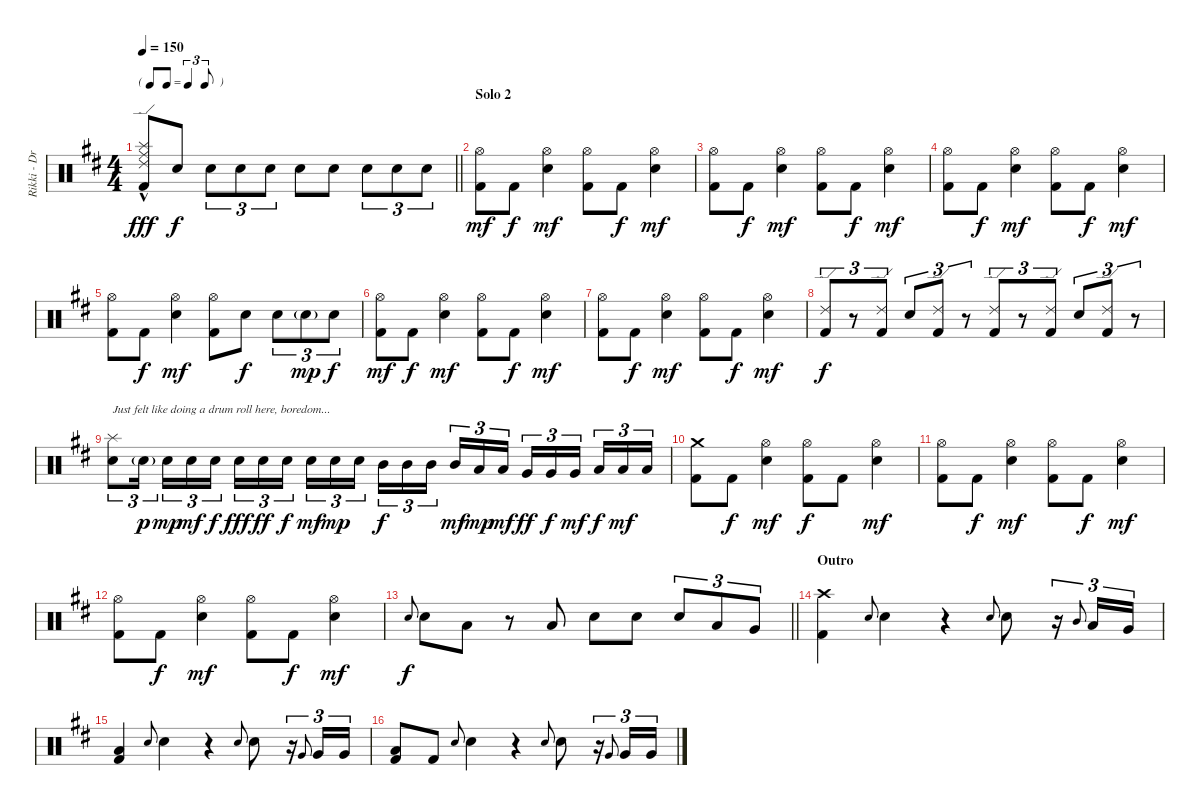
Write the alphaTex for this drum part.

\track ("Rikki - Drums" "Rikki - Dr") {instrument percussion}
\staff {score}
\articulation defaults
\ts (4 4)
\tf triplet8th
\tempo 150
\clef neutral
\barLineRight lightlight
\ks d
("Ride (edge) 2"{hac} "Ride (middle)"{hac} "Splash (hit)" "Kick (hit) 2").8{dy fff} "Snare (hit) 2".8{dy f} "Snare (hit) 2".8{tu (3 2)} "Snare (hit) 2".8{tu (3 2)} "Snare (hit) 2".8{tu (3 2)} "Snare (hit) 2".8 "Snare (hit) 2".8 "Snare (hit) 2".8{tu (3 2)} "Snare (hit) 2".8{tu (3 2)} "Snare (hit) 2".8{tu (3 2)} |
\section ("" "Solo 2")
("Hi-Hat (open)" "Kick (hit) 2").8{dy mf} "Kick (hit) 2".8{dy f} ("Hi-Hat (open)" "Snare (hit) 2").4{dy mf} ("Hi-Hat (open)" "Kick (hit) 2").8 "Kick (hit) 2".8{dy f} ("Hi-Hat (open)" "Snare (hit) 2").4{dy mf} |
("Hi-Hat (open)" "Kick (hit) 2").8 "Kick (hit) 2".8{dy f} ("Hi-Hat (open)" "Snare (hit) 2").4{dy mf} ("Hi-Hat (open)" "Kick (hit) 2").8 "Kick (hit) 2".8{dy f} ("Hi-Hat (open)" "Snare (hit) 2").4{dy mf} |
("Hi-Hat (open)" "Kick (hit) 2").8 "Kick (hit) 2".8{dy f} ("Hi-Hat (open)" "Snare (hit) 2").4{dy mf} ("Hi-Hat (open)" "Kick (hit) 2").8 "Kick (hit) 2".8{dy f} ("Hi-Hat (open)" "Snare (hit) 2").4{dy mf} |
("Hi-Hat (open)" "Kick (hit) 2").8 "Kick (hit) 2".8{dy f} ("Hi-Hat (open)" "Snare (hit) 2").4{dy mf} ("Hi-Hat (open)" "Kick (hit) 2").8 "Snare (hit) 2".8{dy f} "Snare (hit) 2".8{tu (3 2)} "Snare (hit) 2"{g}.8{tu (3 2) dy mp} "Snare (hit) 2".8{tu (3 2) dy f} |
("Hi-Hat (open)" "Kick (hit) 2").8{dy mf} "Kick (hit) 2".8{dy f} ("Hi-Hat (open)" "Snare (hit) 2").4{dy mf} ("Hi-Hat (open)" "Kick (hit) 2").8 "Kick (hit) 2".8{dy f} ("Hi-Hat (open)" "Snare (hit) 2").4{dy mf} |
("Hi-Hat (open)" "Kick (hit) 2").8 "Kick (hit) 2".8{dy f} ("Hi-Hat (open)" "Snare (hit) 2").4{dy mf} ("Hi-Hat (open)" "Kick (hit) 2").8 "Kick (hit) 2".8{dy f} ("Hi-Hat (open)" "Snare (hit) 2").4{dy mf} |
("Ride (edge) 2" "Kick (hit) 2").8{tu (3 2) dy f} r.8{tu (3 2)} ("Ride (edge) 2" "Kick (hit) 2").8{tu (3 2)} "Snare (hit) 2".8{tu (3 2)} ("Ride (edge) 2" "Kick (hit) 2").8{tu (3 2)} r.8{tu (3 2)} ("Ride (edge) 2" "Kick (hit) 2").8{tu (3 2)} r.8{tu (3 2)} ("Ride (edge) 2" "Kick (hit) 2").8{tu (3 2)} "Snare (hit) 2".8{tu (3 2)} ("Ride (edge) 2" "Kick (hit) 2").8{tu (3 2)} r.8{tu (3 2)} |
("Splash (hit)" "Electric Snare (hit)").8{tu (3 2) txt "Just felt like doing a drum roll here, boredom..."} "Electric Snare (hit)"{g}.16{tu (3 2) dy p beam splitsecondary} "Electric Snare (hit)".16{tu (3 2) dy mp} "Electric Snare (hit)".16{tu (3 2) dy mf} "Electric Snare (hit)".16{tu (3 2) dy f} "Electric Snare (hit)".16{tu (3 2) dy fff} "Electric Snare (hit)".16{tu (3 2) dy ff} "Electric Snare (hit)".16{tu (3 2) dy f beam splitsecondary} "Electric Snare (hit)".16{tu (3 2) dy mf} "Electric Snare (hit)".16{tu (3 2) dy mp} "Electric Snare (hit)".16{tu (3 2)} "Mid Tom (hit)".16{tu (3 2) dy f} "Mid Tom (hit)".16{tu (3 2)} "Mid Tom (hit)".16{tu (3 2) beam splitsecondary} "Mid Tom (hit)".16{tu (3 2) dy mf} "Low Tom (hit)".16{tu (3 2) dy mp} "Low Tom (hit)".16{tu (3 2) dy mf} "Very Low Tom (hit)".16{tu (3 2) dy ff} "Very Low Tom (hit)".16{tu (3 2) dy f} "Very Low Tom (hit)".16{tu (3 2) dy mf beam splitsecondary} "Low Floor Tom (hit)".16{tu (3 2) dy f} "Low Floor Tom (hit)".16{tu (3 2) dy mf} "Low Floor Tom (hit)".16{tu (3 2)} |
("Crash medium (hit)" "Kick (hit) 2").8 "Kick (hit) 2".8{dy f} ("Hi-Hat (open)" "Snare (hit) 2").4{dy mf} ("Hi-Hat (open)" "Kick (hit) 2").8{dy f} "Kick (hit) 2".8 ("Hi-Hat (open)" "Snare (hit) 2").4{dy mf} |
("Hi-Hat (open)" "Kick (hit) 2").8 "Kick (hit) 2".8{dy f} ("Hi-Hat (open)" "Snare (hit) 2").4{dy mf} ("Hi-Hat (open)" "Kick (hit) 2").8 "Kick (hit) 2".8{dy f} ("Hi-Hat (open)" "Snare (hit) 2").4{dy mf} |
("Hi-Hat (open)" "Kick (hit) 2").8 "Kick (hit) 2".8{dy f} ("Hi-Hat (open)" "Snare (hit) 2").4{dy mf} ("Hi-Hat (open)" "Kick (hit) 2").8 "Kick (hit) 2".8{dy f} ("Hi-Hat (open)" "Snare (hit) 2").4{dy mf} |
\barLineRight lightlight "Snare (hit) 2".8{gr onbeat dy f} "Snare (hit) 2".8 "Low Tom (hit)".8
r.8 "Low Tom (hit)".8 "Snare (hit) 2".8 "Snare (hit) 2".8 "Snare (hit) 2".8{tu (3 2)} "Low Tom (hit)".8{tu (3 2)} "Very Low Tom (hit)".8{tu (3 2)} |
\section ("" "Outro")
("Crash high (hit)" "Kick (hit) 2").4 "Snare (hit) 2".8{gr onbeat} "Snare (hit) 2".4 r.4 "Snare (hit) 2".8{gr onbeat} "Snare (hit) 2".8 r.16{tu (3 2)} "Mid Tom (hit)".8{gr onbeat} "Low Tom (hit)".16{tu (3 2)} "Very Low Tom (hit)".16{tu (3 2)} |
("Low Floor Tom (hit)" "Kick (hit) 2").4 "Snare (hit) 2".8{gr onbeat} "Snare (hit) 2".4 r.4 "Snare (hit) 2".8{gr onbeat} "Snare (hit) 2".8 r.16{tu (3 2)} "Very Low Tom (hit)".8{gr onbeat} "Very Low Tom (hit)".16{tu (3 2)} "Very Low Tom (hit)".16{tu (3 2)} |
("Low Floor Tom (hit)" "Kick (hit) 2").8 "Kick (hit) 2".8 "Snare (hit) 2".8{gr onbeat} "Snare (hit) 2".4 r.4 "Snare (hit) 2".8{gr onbeat} "Snare (hit) 2".8 r.16{tu (3 2)} "Very Low Tom (hit)".8{gr onbeat} "Very Low Tom (hit)".16{tu (3 2)} "Very Low Tom (hit)".16{tu (3 2)}
